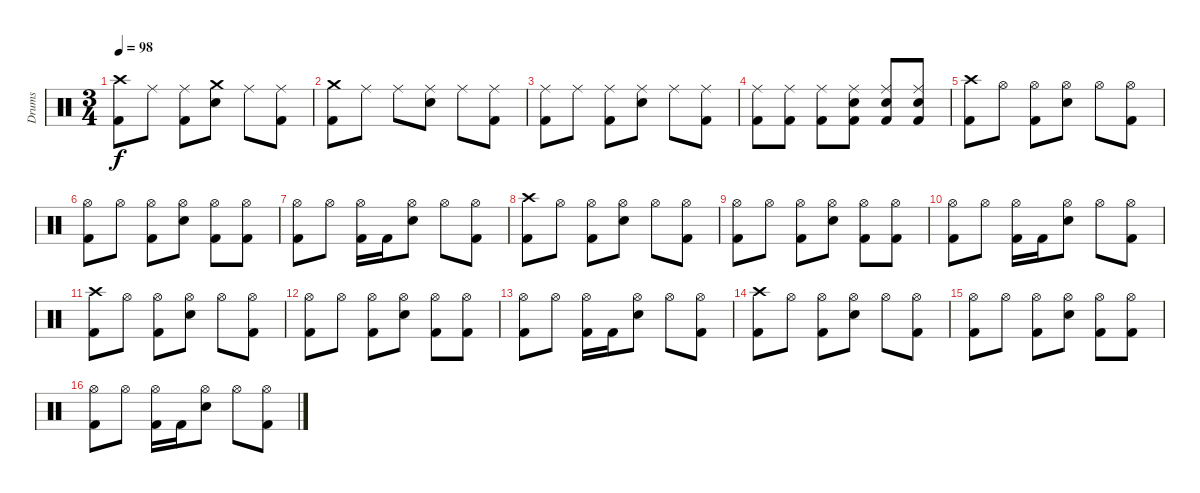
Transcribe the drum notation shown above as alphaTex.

\track ("Drums" "Drums") {instrument percussion}
\staff {score}
\articulation defaults
\ts (3 4)
\tempo 98
\clef neutral
\ks c
("Crash high (hit)" "Kick (hit) 2").8{dy f} "Ride (middle)".8 ("Ride (middle)" "Kick (hit) 2").8 ("Crash medium (hit)" "Snare (hit) 2").8 "Ride (middle)".8 ("Ride (middle)" "Kick (hit) 2").8 |
("Crash medium (hit)" "Kick (hit) 2").8 "Ride (middle)".8 "Ride (middle)".8 ("Ride (middle)" "Snare (hit) 2").8 "Ride (middle)".8 ("Ride (middle)" "Kick (hit) 2").8 |
("Ride (middle)" "Kick (hit) 2").8 "Ride (middle)".8 ("Ride (middle)" "Kick (hit) 2").8 ("Ride (middle)" "Snare (hit) 2").8 "Ride (middle)".8 ("Ride (middle)" "Kick (hit) 2").8 |
("Ride (middle)" "Kick (hit) 2").8 ("Ride (middle)" "Kick (hit) 2").8 ("Ride (middle)" "Kick (hit) 2").8 ("Ride (middle)" "Snare (hit) 2" "Kick (hit) 2").8 ("Ride (middle)" "Snare (hit) 2" "Kick (hit) 2").8 ("Ride (middle)" "Snare (hit) 2" "Kick (hit) 2").8 |
("Crash high (hit)" "Kick (hit) 2").8 "Hi-Hat (open)".8 ("Hi-Hat (open)" "Kick (hit) 2").8 ("Hi-Hat (open)" "Snare (hit) 2").8 "Hi-Hat (open)".8 ("Hi-Hat (open)" "Kick (hit) 2").8 |
("Hi-Hat (open)" "Kick (hit) 2").8 "Hi-Hat (open)".8 ("Hi-Hat (open)" "Kick (hit) 2").8 ("Hi-Hat (open)" "Snare (hit) 2").8 ("Hi-Hat (open)" "Kick (hit) 2").8 ("Hi-Hat (open)" "Kick (hit) 2").8 |
("Hi-Hat (open)" "Kick (hit) 2").8 "Hi-Hat (open)".8 ("Hi-Hat (open)" "Kick (hit) 2").16 "Kick (hit) 2".16 ("Hi-Hat (open)" "Snare (hit) 2").8 "Hi-Hat (open)".8 ("Hi-Hat (open)" "Kick (hit) 2").8 |
("Crash high (hit)" "Kick (hit) 2").8 "Hi-Hat (open)".8 ("Hi-Hat (open)" "Kick (hit) 2").8 ("Hi-Hat (open)" "Snare (hit) 2").8 "Hi-Hat (open)".8 ("Hi-Hat (open)" "Kick (hit) 2").8 |
("Hi-Hat (open)" "Kick (hit) 2").8 "Hi-Hat (open)".8 ("Hi-Hat (open)" "Kick (hit) 2").8 ("Hi-Hat (open)" "Snare (hit) 2").8 ("Hi-Hat (open)" "Kick (hit) 2").8 ("Hi-Hat (open)" "Kick (hit) 2").8 |
("Hi-Hat (open)" "Kick (hit) 2").8 "Hi-Hat (open)".8 ("Hi-Hat (open)" "Kick (hit) 2").16 "Kick (hit) 2".16 ("Hi-Hat (open)" "Snare (hit) 2").8 "Hi-Hat (open)".8 ("Hi-Hat (open)" "Kick (hit) 2").8 |
("Crash high (hit)" "Kick (hit) 2").8 "Hi-Hat (open)".8 ("Hi-Hat (open)" "Kick (hit) 2").8 ("Hi-Hat (open)" "Snare (hit) 2").8 "Hi-Hat (open)".8 ("Hi-Hat (open)" "Kick (hit) 2").8 |
("Hi-Hat (open)" "Kick (hit) 2").8 "Hi-Hat (open)".8 ("Hi-Hat (open)" "Kick (hit) 2").8 ("Hi-Hat (open)" "Snare (hit) 2").8 ("Hi-Hat (open)" "Kick (hit) 2").8 ("Hi-Hat (open)" "Kick (hit) 2").8 |
("Hi-Hat (open)" "Kick (hit) 2").8 "Hi-Hat (open)".8 ("Hi-Hat (open)" "Kick (hit) 2").16 "Kick (hit) 2".16 ("Hi-Hat (open)" "Snare (hit) 2").8 "Hi-Hat (open)".8 ("Hi-Hat (open)" "Kick (hit) 2").8 |
("Crash high (hit)" "Kick (hit) 2").8 "Hi-Hat (open)".8 ("Hi-Hat (open)" "Kick (hit) 2").8 ("Hi-Hat (open)" "Snare (hit) 2").8 "Hi-Hat (open)".8 ("Hi-Hat (open)" "Kick (hit) 2").8 |
("Hi-Hat (open)" "Kick (hit) 2").8 "Hi-Hat (open)".8 ("Hi-Hat (open)" "Kick (hit) 2").8 ("Hi-Hat (open)" "Snare (hit) 2").8 ("Hi-Hat (open)" "Kick (hit) 2").8 ("Hi-Hat (open)" "Kick (hit) 2").8 |
("Hi-Hat (open)" "Kick (hit) 2").8 "Hi-Hat (open)".8 ("Hi-Hat (open)" "Kick (hit) 2").16 "Kick (hit) 2".16 ("Hi-Hat (open)" "Snare (hit) 2").8 "Hi-Hat (open)".8 ("Hi-Hat (open)" "Kick (hit) 2").8
